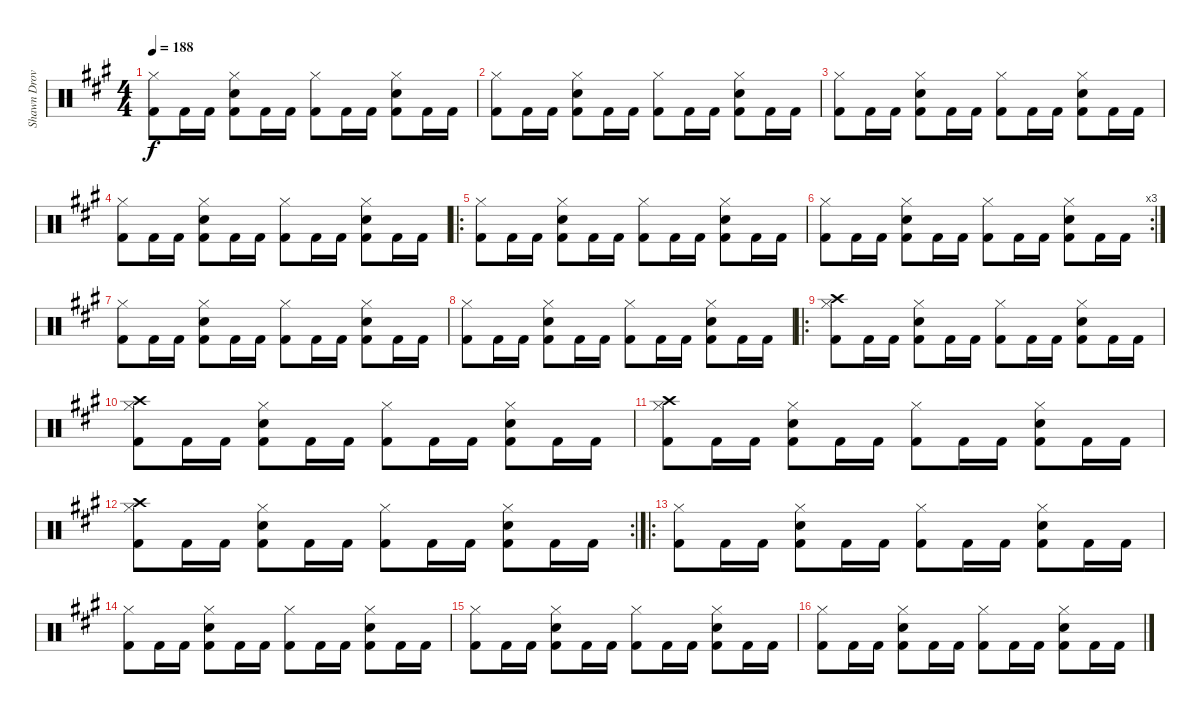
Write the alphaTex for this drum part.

\track ("Shawn Drover" "Shawn Drov") {instrument percussion}
\staff {score}
\articulation defaults
\ts (4 4)
\tempo 188
\clef neutral
\ks a
("Hi-Hat (closed)" "Kick (hit) 2").8{dy f} "Kick (hit) 2".16 "Kick (hit) 2".16 ("Hi-Hat (closed)" "Electric Snare (hit)" "Kick (hit) 2").8 "Kick (hit) 2".16 "Kick (hit) 2".16 ("Hi-Hat (closed)" "Kick (hit) 2").8 "Kick (hit) 2".16 "Kick (hit) 2".16 ("Hi-Hat (closed)" "Electric Snare (hit)" "Kick (hit) 2").8 "Kick (hit) 2".16 "Kick (hit) 2".16 |
("Hi-Hat (closed)" "Kick (hit) 2").8 "Kick (hit) 2".16 "Kick (hit) 2".16 ("Hi-Hat (closed)" "Electric Snare (hit)" "Kick (hit) 2").8 "Kick (hit) 2".16 "Kick (hit) 2".16 ("Hi-Hat (closed)" "Kick (hit) 2").8 "Kick (hit) 2".16 "Kick (hit) 2".16 ("Hi-Hat (closed)" "Electric Snare (hit)" "Kick (hit) 2").8 "Kick (hit) 2".16 "Kick (hit) 2".16 |
("Hi-Hat (closed)" "Kick (hit) 2").8 "Kick (hit) 2".16 "Kick (hit) 2".16 ("Hi-Hat (closed)" "Electric Snare (hit)" "Kick (hit) 2").8 "Kick (hit) 2".16 "Kick (hit) 2".16 ("Hi-Hat (closed)" "Kick (hit) 2").8 "Kick (hit) 2".16 "Kick (hit) 2".16 ("Hi-Hat (closed)" "Electric Snare (hit)" "Kick (hit) 2").8 "Kick (hit) 2".16 "Kick (hit) 2".16 |
("Hi-Hat (closed)" "Kick (hit) 2").8 "Kick (hit) 2".16 "Kick (hit) 2".16 ("Hi-Hat (closed)" "Electric Snare (hit)" "Kick (hit) 2").8 "Kick (hit) 2".16 "Kick (hit) 2".16 ("Hi-Hat (closed)" "Kick (hit) 2").8 "Kick (hit) 2".16 "Kick (hit) 2".16 ("Hi-Hat (closed)" "Electric Snare (hit)" "Kick (hit) 2").8 "Kick (hit) 2".16 "Kick (hit) 2".16 |
\ro
("Hi-Hat (closed)" "Kick (hit) 2").8 "Kick (hit) 2".16 "Kick (hit) 2".16 ("Hi-Hat (closed)" "Electric Snare (hit)" "Kick (hit) 2").8 "Kick (hit) 2".16 "Kick (hit) 2".16 ("Hi-Hat (closed)" "Kick (hit) 2").8 "Kick (hit) 2".16 "Kick (hit) 2".16 ("Hi-Hat (closed)" "Electric Snare (hit)" "Kick (hit) 2").8 "Kick (hit) 2".16 "Kick (hit) 2".16 |
\rc 3
("Hi-Hat (closed)" "Kick (hit) 2").8 "Kick (hit) 2".16 "Kick (hit) 2".16 ("Hi-Hat (closed)" "Electric Snare (hit)" "Kick (hit) 2").8 "Kick (hit) 2".16 "Kick (hit) 2".16 ("Hi-Hat (closed)" "Kick (hit) 2").8 "Kick (hit) 2".16 "Kick (hit) 2".16 ("Hi-Hat (closed)" "Electric Snare (hit)" "Kick (hit) 2").8 "Kick (hit) 2".16 "Kick (hit) 2".16 |
("Hi-Hat (closed)" "Kick (hit) 2").8 "Kick (hit) 2".16 "Kick (hit) 2".16 ("Hi-Hat (closed)" "Electric Snare (hit)" "Kick (hit) 2").8 "Kick (hit) 2".16 "Kick (hit) 2".16 ("Hi-Hat (closed)" "Kick (hit) 2").8 "Kick (hit) 2".16 "Kick (hit) 2".16 ("Hi-Hat (closed)" "Electric Snare (hit)" "Kick (hit) 2").8 "Kick (hit) 2".16 "Kick (hit) 2".16 |
("Hi-Hat (closed)" "Kick (hit) 2").8 "Kick (hit) 2".16 "Kick (hit) 2".16 ("Hi-Hat (closed)" "Electric Snare (hit)" "Kick (hit) 2").8 "Kick (hit) 2".16 "Kick (hit) 2".16 ("Hi-Hat (closed)" "Kick (hit) 2").8 "Kick (hit) 2".16 "Kick (hit) 2".16 ("Hi-Hat (closed)" "Electric Snare (hit)" "Kick (hit) 2").8 "Kick (hit) 2".16 "Kick (hit) 2".16 |
\ro
("Crash high (hit)" "Hi-Hat (closed)" "Kick (hit) 2").8 "Kick (hit) 2".16 "Kick (hit) 2".16 ("Hi-Hat (closed)" "Electric Snare (hit)" "Kick (hit) 2").8 "Kick (hit) 2".16 "Kick (hit) 2".16 ("Hi-Hat (closed)" "Kick (hit) 2").8 "Kick (hit) 2".16 "Kick (hit) 2".16 ("Hi-Hat (closed)" "Electric Snare (hit)" "Kick (hit) 2").8 "Kick (hit) 2".16 "Kick (hit) 2".16 |
("Crash high (hit)" "Hi-Hat (closed)" "Kick (hit) 2").8 "Kick (hit) 2".16 "Kick (hit) 2".16 ("Hi-Hat (closed)" "Electric Snare (hit)" "Kick (hit) 2").8 "Kick (hit) 2".16 "Kick (hit) 2".16 ("Hi-Hat (closed)" "Kick (hit) 2").8 "Kick (hit) 2".16 "Kick (hit) 2".16 ("Hi-Hat (closed)" "Electric Snare (hit)" "Kick (hit) 2").8 "Kick (hit) 2".16 "Kick (hit) 2".16 |
("Crash high (hit)" "Hi-Hat (closed)" "Kick (hit) 2").8 "Kick (hit) 2".16 "Kick (hit) 2".16 ("Hi-Hat (closed)" "Electric Snare (hit)" "Kick (hit) 2").8 "Kick (hit) 2".16 "Kick (hit) 2".16 ("Hi-Hat (closed)" "Kick (hit) 2").8 "Kick (hit) 2".16 "Kick (hit) 2".16 ("Hi-Hat (closed)" "Electric Snare (hit)" "Kick (hit) 2").8 "Kick (hit) 2".16 "Kick (hit) 2".16 |
\rc 2
("Crash high (hit)" "Hi-Hat (closed)" "Kick (hit) 2").8 "Kick (hit) 2".16 "Kick (hit) 2".16 ("Hi-Hat (closed)" "Electric Snare (hit)" "Kick (hit) 2").8 "Kick (hit) 2".16 "Kick (hit) 2".16 ("Hi-Hat (closed)" "Kick (hit) 2").8 "Kick (hit) 2".16 "Kick (hit) 2".16 ("Hi-Hat (closed)" "Electric Snare (hit)" "Kick (hit) 2").8 "Kick (hit) 2".16 "Kick (hit) 2".16 |
\ro
("Hi-Hat (closed)" "Kick (hit) 2").8 "Kick (hit) 2".16 "Kick (hit) 2".16 ("Hi-Hat (closed)" "Electric Snare (hit)" "Kick (hit) 2").8 "Kick (hit) 2".16 "Kick (hit) 2".16 ("Hi-Hat (closed)" "Kick (hit) 2").8 "Kick (hit) 2".16 "Kick (hit) 2".16 ("Hi-Hat (closed)" "Electric Snare (hit)" "Kick (hit) 2").8 "Kick (hit) 2".16 "Kick (hit) 2".16 |
("Hi-Hat (closed)" "Kick (hit) 2").8 "Kick (hit) 2".16 "Kick (hit) 2".16 ("Hi-Hat (closed)" "Electric Snare (hit)" "Kick (hit) 2").8 "Kick (hit) 2".16 "Kick (hit) 2".16 ("Hi-Hat (closed)" "Kick (hit) 2").8 "Kick (hit) 2".16 "Kick (hit) 2".16 ("Hi-Hat (closed)" "Electric Snare (hit)" "Kick (hit) 2").8 "Kick (hit) 2".16 "Kick (hit) 2".16 |
("Hi-Hat (closed)" "Kick (hit) 2").8 "Kick (hit) 2".16 "Kick (hit) 2".16 ("Hi-Hat (closed)" "Electric Snare (hit)" "Kick (hit) 2").8 "Kick (hit) 2".16 "Kick (hit) 2".16 ("Hi-Hat (closed)" "Kick (hit) 2").8 "Kick (hit) 2".16 "Kick (hit) 2".16 ("Hi-Hat (closed)" "Electric Snare (hit)" "Kick (hit) 2").8 "Kick (hit) 2".16 "Kick (hit) 2".16 |
("Hi-Hat (closed)" "Kick (hit) 2").8 "Kick (hit) 2".16 "Kick (hit) 2".16 ("Hi-Hat (closed)" "Electric Snare (hit)" "Kick (hit) 2").8 "Kick (hit) 2".16 "Kick (hit) 2".16 ("Hi-Hat (closed)" "Kick (hit) 2").8 "Kick (hit) 2".16 "Kick (hit) 2".16 ("Hi-Hat (closed)" "Electric Snare (hit)" "Kick (hit) 2").8 "Kick (hit) 2".16 "Kick (hit) 2".16
